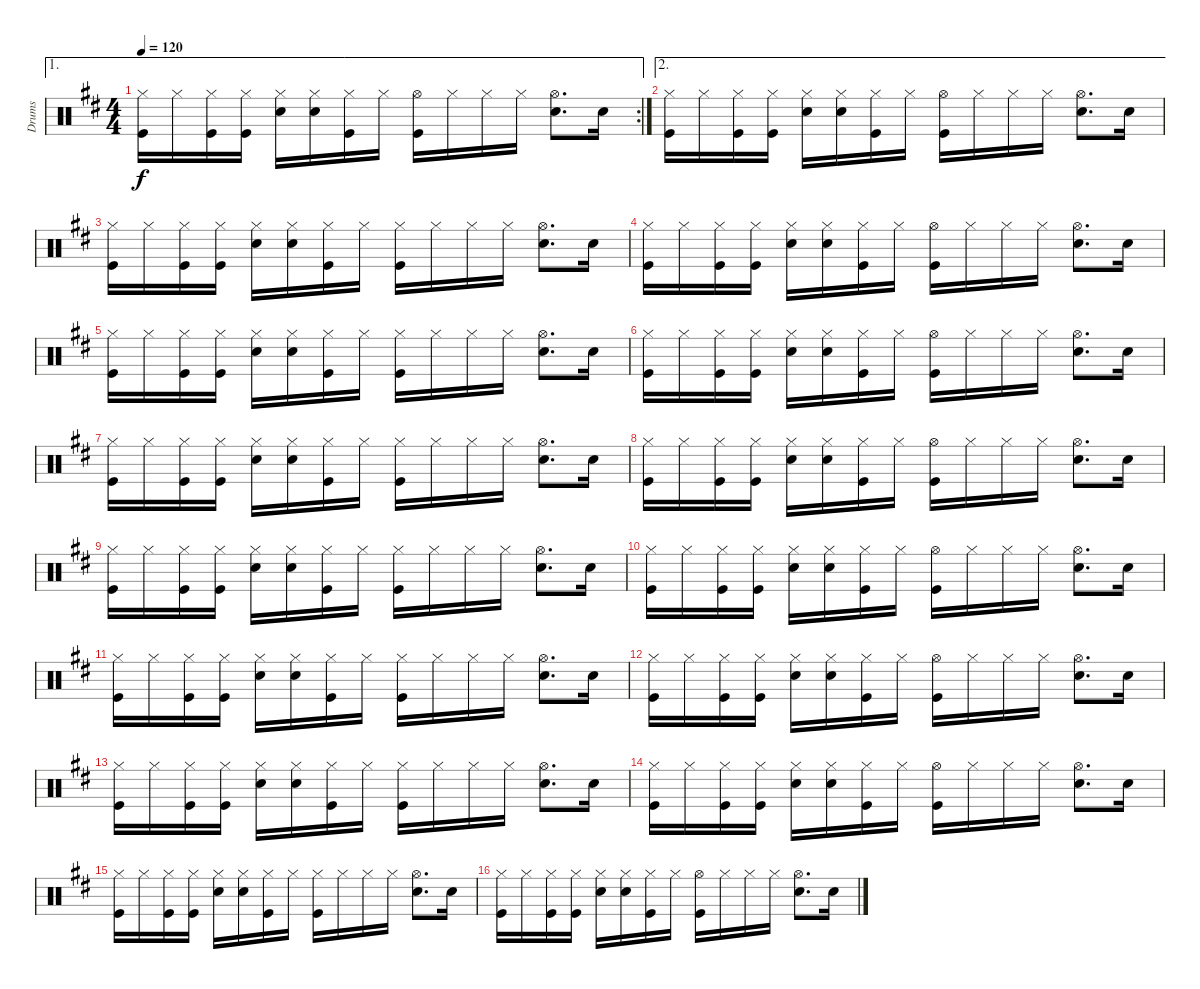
\track ("Drums" "Drums") {instrument percussion}
\staff {score}
\articulation defaults
\ae 1
\rc 2
\ts (4 4)
\tempo 120
\clef neutral
\ks d
("Hi-Hat (closed)" "Kick (hit)").16{dy f} "Hi-Hat (closed)".16 ("Hi-Hat (closed)" "Kick (hit)").16 ("Hi-Hat (closed)" "Kick (hit)").16 ("Hi-Hat (closed)" "Snare (hit) 2").16 ("Hi-Hat (closed)" "Snare (hit) 2").16 ("Hi-Hat (closed)" "Kick (hit)").16 "Hi-Hat (closed)".16 ("Hi-Hat (open)" "Kick (hit)").16 "Hi-Hat (closed)".16 "Hi-Hat (closed)".16 "Hi-Hat (closed)".16 ("Hi-Hat (open)" "Snare (hit) 2").8{d} "Snare (hit) 2".16 |
\ae 2
("Hi-Hat (closed)" "Kick (hit)").16 "Hi-Hat (closed)".16 ("Hi-Hat (closed)" "Kick (hit)").16 ("Hi-Hat (closed)" "Kick (hit)").16 ("Hi-Hat (closed)" "Snare (hit) 2").16 ("Hi-Hat (closed)" "Snare (hit) 2").16 ("Hi-Hat (closed)" "Kick (hit)").16 "Hi-Hat (closed)".16 ("Hi-Hat (open)" "Kick (hit)").16 "Hi-Hat (closed)".16 "Hi-Hat (closed)".16 "Hi-Hat (closed)".16 ("Hi-Hat (open)" "Snare (hit) 2").8{d} "Snare (hit) 2".16 |
("Hi-Hat (closed)" "Kick (hit)").16 "Hi-Hat (closed)".16 ("Hi-Hat (closed)" "Kick (hit)").16 ("Hi-Hat (closed)" "Kick (hit)").16 ("Hi-Hat (closed)" "Snare (hit) 2").16 ("Hi-Hat (closed)" "Snare (hit) 2").16 ("Hi-Hat (closed)" "Kick (hit)").16 "Hi-Hat (closed)".16 ("Hi-Hat (closed)" "Kick (hit)").16 "Hi-Hat (closed)".16 "Hi-Hat (closed)".16 "Hi-Hat (closed)".16 ("Hi-Hat (open)" "Snare (hit) 2").8{d} "Snare (hit) 2".16 |
("Hi-Hat (closed)" "Kick (hit)").16 "Hi-Hat (closed)".16 ("Hi-Hat (closed)" "Kick (hit)").16 ("Hi-Hat (closed)" "Kick (hit)").16 ("Hi-Hat (closed)" "Snare (hit) 2").16 ("Hi-Hat (closed)" "Snare (hit) 2").16 ("Hi-Hat (closed)" "Kick (hit)").16 "Hi-Hat (closed)".16 ("Hi-Hat (open)" "Kick (hit)").16 "Hi-Hat (closed)".16 "Hi-Hat (closed)".16 "Hi-Hat (closed)".16 ("Hi-Hat (open)" "Snare (hit) 2").8{d} "Snare (hit) 2".16 |
("Hi-Hat (closed)" "Kick (hit)").16 "Hi-Hat (closed)".16 ("Hi-Hat (closed)" "Kick (hit)").16 ("Hi-Hat (closed)" "Kick (hit)").16 ("Hi-Hat (closed)" "Snare (hit) 2").16 ("Hi-Hat (closed)" "Snare (hit) 2").16 ("Hi-Hat (closed)" "Kick (hit)").16 "Hi-Hat (closed)".16 ("Hi-Hat (closed)" "Kick (hit)").16 "Hi-Hat (closed)".16 "Hi-Hat (closed)".16 "Hi-Hat (closed)".16 ("Hi-Hat (open)" "Snare (hit) 2").8{d} "Snare (hit) 2".16 |
("Hi-Hat (closed)" "Kick (hit)").16 "Hi-Hat (closed)".16 ("Hi-Hat (closed)" "Kick (hit)").16 ("Hi-Hat (closed)" "Kick (hit)").16 ("Hi-Hat (closed)" "Snare (hit) 2").16 ("Hi-Hat (closed)" "Snare (hit) 2").16 ("Hi-Hat (closed)" "Kick (hit)").16 "Hi-Hat (closed)".16 ("Hi-Hat (open)" "Kick (hit)").16 "Hi-Hat (closed)".16 "Hi-Hat (closed)".16 "Hi-Hat (closed)".16 ("Hi-Hat (open)" "Snare (hit) 2").8{d} "Snare (hit) 2".16 |
("Hi-Hat (closed)" "Kick (hit)").16 "Hi-Hat (closed)".16 ("Hi-Hat (closed)" "Kick (hit)").16 ("Hi-Hat (closed)" "Kick (hit)").16 ("Hi-Hat (closed)" "Snare (hit) 2").16 ("Hi-Hat (closed)" "Snare (hit) 2").16 ("Hi-Hat (closed)" "Kick (hit)").16 "Hi-Hat (closed)".16 ("Hi-Hat (closed)" "Kick (hit)").16 "Hi-Hat (closed)".16 "Hi-Hat (closed)".16 "Hi-Hat (closed)".16 ("Hi-Hat (open)" "Snare (hit) 2").8{d} "Snare (hit) 2".16 |
("Hi-Hat (closed)" "Kick (hit)").16 "Hi-Hat (closed)".16 ("Hi-Hat (closed)" "Kick (hit)").16 ("Hi-Hat (closed)" "Kick (hit)").16 ("Hi-Hat (closed)" "Snare (hit) 2").16 ("Hi-Hat (closed)" "Snare (hit) 2").16 ("Hi-Hat (closed)" "Kick (hit)").16 "Hi-Hat (closed)".16 ("Hi-Hat (open)" "Kick (hit)").16 "Hi-Hat (closed)".16 "Hi-Hat (closed)".16 "Hi-Hat (closed)".16 ("Hi-Hat (open)" "Snare (hit) 2").8{d} "Snare (hit) 2".16 |
("Hi-Hat (closed)" "Kick (hit)").16 "Hi-Hat (closed)".16 ("Hi-Hat (closed)" "Kick (hit)").16 ("Hi-Hat (closed)" "Kick (hit)").16 ("Hi-Hat (closed)" "Snare (hit) 2").16 ("Hi-Hat (closed)" "Snare (hit) 2").16 ("Hi-Hat (closed)" "Kick (hit)").16 "Hi-Hat (closed)".16 ("Hi-Hat (closed)" "Kick (hit)").16 "Hi-Hat (closed)".16 "Hi-Hat (closed)".16 "Hi-Hat (closed)".16 ("Hi-Hat (open)" "Snare (hit) 2").8{d} "Snare (hit) 2".16 |
("Hi-Hat (closed)" "Kick (hit)").16 "Hi-Hat (closed)".16 ("Hi-Hat (closed)" "Kick (hit)").16 ("Hi-Hat (closed)" "Kick (hit)").16 ("Hi-Hat (closed)" "Snare (hit) 2").16 ("Hi-Hat (closed)" "Snare (hit) 2").16 ("Hi-Hat (closed)" "Kick (hit)").16 "Hi-Hat (closed)".16 ("Hi-Hat (open)" "Kick (hit)").16 "Hi-Hat (closed)".16 "Hi-Hat (closed)".16 "Hi-Hat (closed)".16 ("Hi-Hat (open)" "Snare (hit) 2").8{d} "Snare (hit) 2".16 |
("Hi-Hat (closed)" "Kick (hit)").16 "Hi-Hat (closed)".16 ("Hi-Hat (closed)" "Kick (hit)").16 ("Hi-Hat (closed)" "Kick (hit)").16 ("Hi-Hat (closed)" "Snare (hit) 2").16 ("Hi-Hat (closed)" "Snare (hit) 2").16 ("Hi-Hat (closed)" "Kick (hit)").16 "Hi-Hat (closed)".16 ("Hi-Hat (closed)" "Kick (hit)").16 "Hi-Hat (closed)".16 "Hi-Hat (closed)".16 "Hi-Hat (closed)".16 ("Hi-Hat (open)" "Snare (hit) 2").8{d} "Snare (hit) 2".16 |
("Hi-Hat (closed)" "Kick (hit)").16 "Hi-Hat (closed)".16 ("Hi-Hat (closed)" "Kick (hit)").16 ("Hi-Hat (closed)" "Kick (hit)").16 ("Hi-Hat (closed)" "Snare (hit) 2").16 ("Hi-Hat (closed)" "Snare (hit) 2").16 ("Hi-Hat (closed)" "Kick (hit)").16 "Hi-Hat (closed)".16 ("Hi-Hat (open)" "Kick (hit)").16 "Hi-Hat (closed)".16 "Hi-Hat (closed)".16 "Hi-Hat (closed)".16 ("Hi-Hat (open)" "Snare (hit) 2").8{d} "Snare (hit) 2".16 |
("Hi-Hat (closed)" "Kick (hit)").16 "Hi-Hat (closed)".16 ("Hi-Hat (closed)" "Kick (hit)").16 ("Hi-Hat (closed)" "Kick (hit)").16 ("Hi-Hat (closed)" "Snare (hit) 2").16 ("Hi-Hat (closed)" "Snare (hit) 2").16 ("Hi-Hat (closed)" "Kick (hit)").16 "Hi-Hat (closed)".16 ("Hi-Hat (closed)" "Kick (hit)").16 "Hi-Hat (closed)".16 "Hi-Hat (closed)".16 "Hi-Hat (closed)".16 ("Hi-Hat (open)" "Snare (hit) 2").8{d} "Snare (hit) 2".16 |
("Hi-Hat (closed)" "Kick (hit)").16 "Hi-Hat (closed)".16 ("Hi-Hat (closed)" "Kick (hit)").16 ("Hi-Hat (closed)" "Kick (hit)").16 ("Hi-Hat (closed)" "Snare (hit) 2").16 ("Hi-Hat (closed)" "Snare (hit) 2").16 ("Hi-Hat (closed)" "Kick (hit)").16 "Hi-Hat (closed)".16 ("Hi-Hat (open)" "Kick (hit)").16 "Hi-Hat (closed)".16 "Hi-Hat (closed)".16 "Hi-Hat (closed)".16 ("Hi-Hat (open)" "Snare (hit) 2").8{d} "Snare (hit) 2".16 |
("Hi-Hat (closed)" "Kick (hit)").16 "Hi-Hat (closed)".16 ("Hi-Hat (closed)" "Kick (hit)").16 ("Hi-Hat (closed)" "Kick (hit)").16 ("Hi-Hat (closed)" "Snare (hit) 2").16 ("Hi-Hat (closed)" "Snare (hit) 2").16 ("Hi-Hat (closed)" "Kick (hit)").16 "Hi-Hat (closed)".16 ("Hi-Hat (closed)" "Kick (hit)").16 "Hi-Hat (closed)".16 "Hi-Hat (closed)".16 "Hi-Hat (closed)".16 ("Hi-Hat (open)" "Snare (hit) 2").8{d} "Snare (hit) 2".16 |
("Hi-Hat (closed)" "Kick (hit)").16 "Hi-Hat (closed)".16 ("Hi-Hat (closed)" "Kick (hit)").16 ("Hi-Hat (closed)" "Kick (hit)").16 ("Hi-Hat (closed)" "Snare (hit) 2").16 ("Hi-Hat (closed)" "Snare (hit) 2").16 ("Hi-Hat (closed)" "Kick (hit)").16 "Hi-Hat (closed)".16 ("Hi-Hat (open)" "Kick (hit)").16 "Hi-Hat (closed)".16 "Hi-Hat (closed)".16 "Hi-Hat (closed)".16 ("Hi-Hat (open)" "Snare (hit) 2").8{d} "Snare (hit) 2".16
